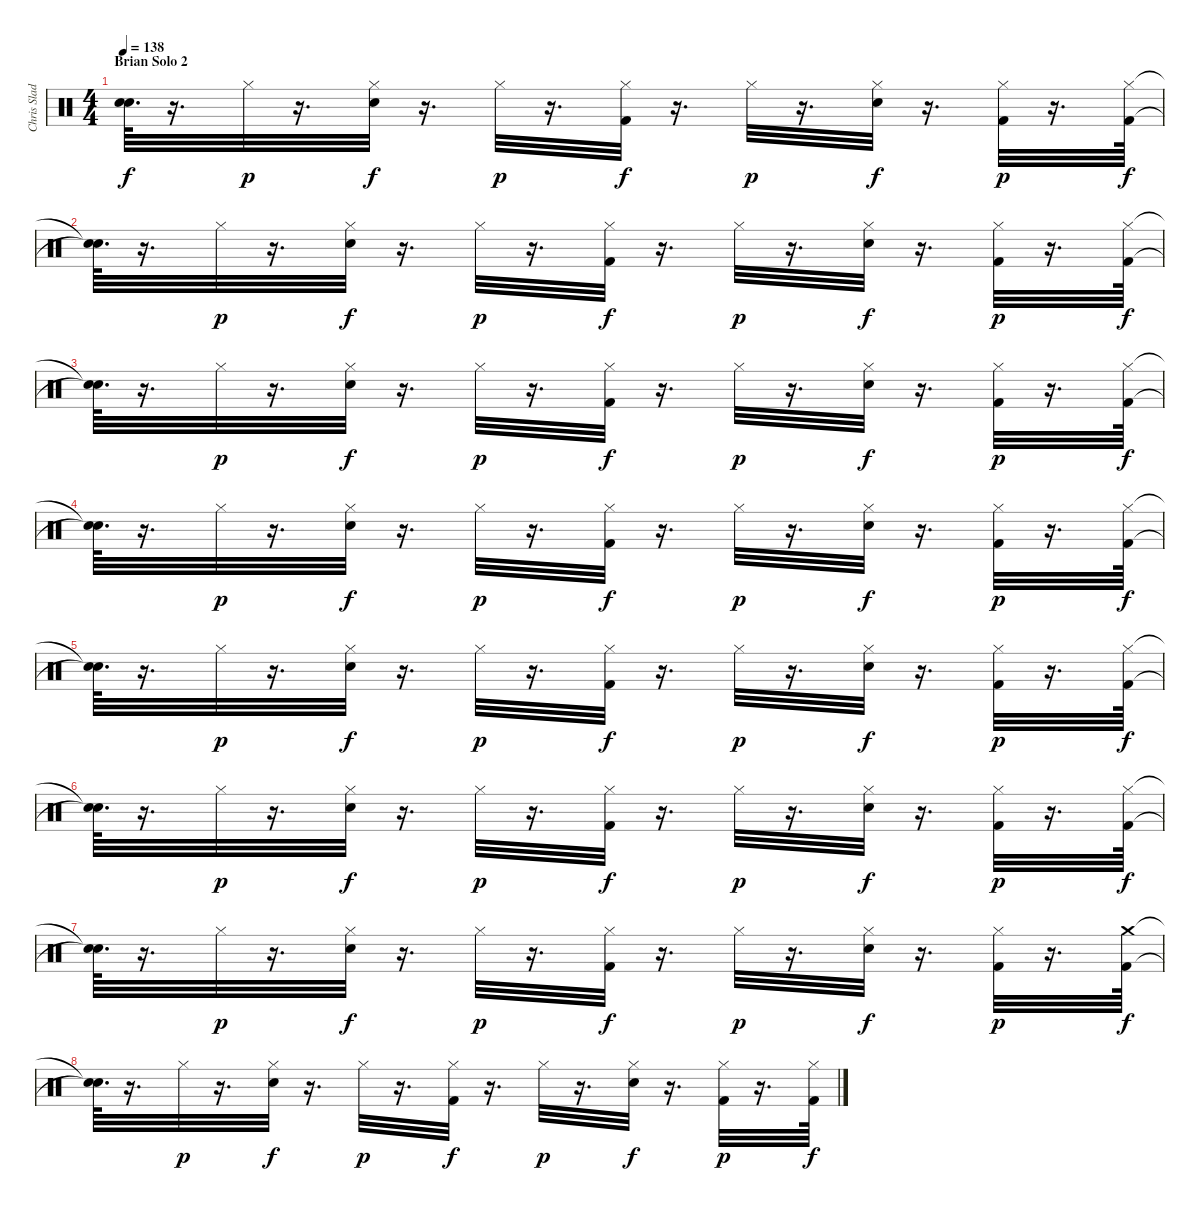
\track ("Chris Slade" "Chris Slad") {instrument percussion}
\staff {score}
\articulation defaults
\ts (4 4)
\section ("" "Brian Solo 2")
\tempo 138
\clef neutral
\ks c
("Snare (hit)"{t} "Snare (hit)"{t}).64{d dy f} r.16{d} "Hi-Hat (closed)".32{dy p} r.16{d} ("Hi-Hat (closed)" "Electric Snare (hit)").32{dy f} r.16{d} "Hi-Hat (closed)".32{dy p} r.16{d} ("Hi-Hat (closed)" "Kick (hit) 2").32{dy f} r.16{d} "Hi-Hat (closed)".32{dy p} r.16{d} ("Hi-Hat (closed)" "Electric Snare (hit)").32{dy f} r.16{d} ("Hi-Hat (closed)" "Kick (hit) 2").32{dy p} r.16{d} ("Hi-Hat (closed)" "Kick (hit) 2").64{dy f} |
("Snare (hit)"{t} "Snare (hit)"{t}).64{d} r.16{d} "Hi-Hat (closed)".32{dy p} r.16{d} ("Hi-Hat (closed)" "Electric Snare (hit)").32{dy f} r.16{d} "Hi-Hat (closed)".32{dy p} r.16{d} ("Hi-Hat (closed)" "Kick (hit) 2").32{dy f} r.16{d} "Hi-Hat (closed)".32{dy p} r.16{d} ("Hi-Hat (closed)" "Electric Snare (hit)").32{dy f} r.16{d} ("Hi-Hat (closed)" "Kick (hit) 2").32{dy p} r.16{d} ("Hi-Hat (closed)" "Kick (hit) 2").64{dy f} |
("Snare (hit)"{t} "Snare (hit)"{t}).64{d} r.16{d} "Hi-Hat (closed)".32{dy p} r.16{d} ("Hi-Hat (closed)" "Electric Snare (hit)").32{dy f} r.16{d} "Hi-Hat (closed)".32{dy p} r.16{d} ("Hi-Hat (closed)" "Kick (hit) 2").32{dy f} r.16{d} "Hi-Hat (closed)".32{dy p} r.16{d} ("Hi-Hat (closed)" "Electric Snare (hit)").32{dy f} r.16{d} ("Hi-Hat (closed)" "Kick (hit) 2").32{dy p} r.16{d} ("Hi-Hat (closed)" "Kick (hit) 2").64{dy f} |
("Snare (hit)"{t} "Snare (hit)"{t}).64{d} r.16{d} "Hi-Hat (closed)".32{dy p} r.16{d} ("Hi-Hat (closed)" "Electric Snare (hit)").32{dy f} r.16{d} "Hi-Hat (closed)".32{dy p} r.16{d} ("Hi-Hat (closed)" "Kick (hit) 2").32{dy f} r.16{d} "Hi-Hat (closed)".32{dy p} r.16{d} ("Hi-Hat (closed)" "Electric Snare (hit)").32{dy f} r.16{d} ("Hi-Hat (closed)" "Kick (hit) 2").32{dy p} r.16{d} ("Hi-Hat (closed)" "Kick (hit) 2").64{dy f} |
("Snare (hit)"{t} "Snare (hit)"{t}).64{d} r.16{d} "Hi-Hat (closed)".32{dy p} r.16{d} ("Hi-Hat (closed)" "Electric Snare (hit)").32{dy f} r.16{d} "Hi-Hat (closed)".32{dy p} r.16{d} ("Hi-Hat (closed)" "Kick (hit) 2").32{dy f} r.16{d} "Hi-Hat (closed)".32{dy p} r.16{d} ("Hi-Hat (closed)" "Electric Snare (hit)").32{dy f} r.16{d} ("Hi-Hat (closed)" "Kick (hit) 2").32{dy p} r.16{d} ("Hi-Hat (closed)" "Kick (hit) 2").64{dy f} |
("Snare (hit)"{t} "Snare (hit)"{t}).64{d} r.16{d} "Hi-Hat (closed)".32{dy p} r.16{d} ("Hi-Hat (closed)" "Electric Snare (hit)").32{dy f} r.16{d} "Hi-Hat (closed)".32{dy p} r.16{d} ("Hi-Hat (closed)" "Kick (hit) 2").32{dy f} r.16{d} "Hi-Hat (closed)".32{dy p} r.16{d} ("Hi-Hat (closed)" "Electric Snare (hit)").32{dy f} r.16{d} ("Hi-Hat (closed)" "Kick (hit) 2").32{dy p} r.16{d} ("Hi-Hat (closed)" "Kick (hit) 2").64{dy f} |
("Snare (hit)"{t} "Snare (hit)"{t}).64{d} r.16{d} "Hi-Hat (closed)".32{dy p} r.16{d} ("Hi-Hat (closed)" "Electric Snare (hit)").32{dy f} r.16{d} "Hi-Hat (closed)".32{dy p} r.16{d} ("Hi-Hat (closed)" "Kick (hit) 2").32{dy f} r.16{d} "Hi-Hat (closed)".32{dy p} r.16{d} ("Hi-Hat (closed)" "Electric Snare (hit)").32{dy f} r.16{d} ("Hi-Hat (closed)" "Kick (hit) 2").32{dy p} r.16{d} ("Crash medium (hit)" "Kick (hit) 2").64{dy f} |
("Snare (hit)"{t} "Snare (hit)"{t}).64{d} r.16{d} "Hi-Hat (closed)".32{dy p} r.16{d} ("Hi-Hat (closed)" "Electric Snare (hit)").32{dy f} r.16{d} "Hi-Hat (closed)".32{dy p} r.16{d} ("Hi-Hat (closed)" "Kick (hit) 2").32{dy f} r.16{d} "Hi-Hat (closed)".32{dy p} r.16{d} ("Hi-Hat (closed)" "Electric Snare (hit)").32{dy f} r.16{d} ("Hi-Hat (closed)" "Kick (hit) 2").32{dy p} r.16{d} ("Hi-Hat (closed)" "Kick (hit) 2").64{dy f}
